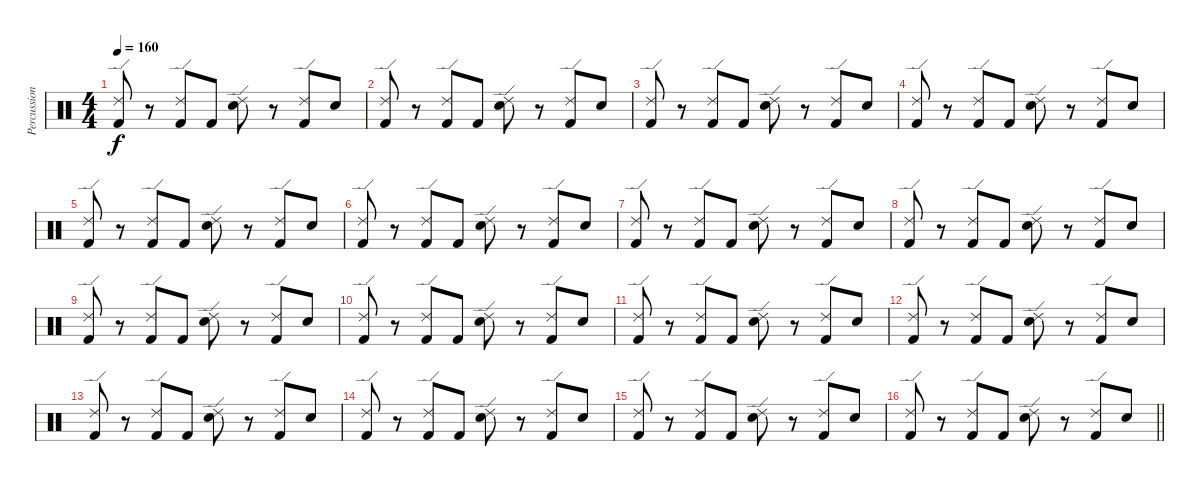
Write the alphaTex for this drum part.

\track ("Percussion" "Percussion") {instrument percussion}
\staff {score}
\articulation defaults
\ts (4 4)
\tempo 160
\clef neutral
\ks c
("Ride (edge) 2" "Kick (hit) 2").8{dy f} r.8 ("Ride (edge) 2" "Kick (hit) 2").8 "Kick (hit) 2".8 ("Ride (edge) 2" "Snare (hit) 2").8 r.8 ("Ride (edge) 2" "Kick (hit) 2").8 "Snare (hit) 2".8 |
("Ride (edge) 2" "Kick (hit) 2").8 r.8 ("Ride (edge) 2" "Kick (hit) 2").8 "Kick (hit) 2".8 ("Ride (edge) 2" "Snare (hit) 2").8 r.8 ("Ride (edge) 2" "Kick (hit) 2").8 "Snare (hit) 2".8 |
("Ride (edge) 2" "Kick (hit) 2").8 r.8 ("Ride (edge) 2" "Kick (hit) 2").8 "Kick (hit) 2".8 ("Ride (edge) 2" "Snare (hit) 2").8 r.8 ("Ride (edge) 2" "Kick (hit) 2").8 "Snare (hit) 2".8 |
("Ride (edge) 2" "Kick (hit) 2").8 r.8 ("Ride (edge) 2" "Kick (hit) 2").8 "Kick (hit) 2".8 ("Ride (edge) 2" "Snare (hit) 2").8 r.8 ("Ride (edge) 2" "Kick (hit) 2").8 "Snare (hit) 2".8 |
("Ride (edge) 2" "Kick (hit) 2").8 r.8 ("Ride (edge) 2" "Kick (hit) 2").8 "Kick (hit) 2".8 ("Ride (edge) 2" "Snare (hit) 2").8 r.8 ("Ride (edge) 2" "Kick (hit) 2").8 "Snare (hit) 2".8 |
("Ride (edge) 2" "Kick (hit) 2").8 r.8 ("Ride (edge) 2" "Kick (hit) 2").8 "Kick (hit) 2".8 ("Ride (edge) 2" "Snare (hit) 2").8 r.8 ("Ride (edge) 2" "Kick (hit) 2").8 "Snare (hit) 2".8 |
("Ride (edge) 2" "Kick (hit) 2").8 r.8 ("Ride (edge) 2" "Kick (hit) 2").8 "Kick (hit) 2".8 ("Ride (edge) 2" "Snare (hit) 2").8 r.8 ("Ride (edge) 2" "Kick (hit) 2").8 "Snare (hit) 2".8 |
("Ride (edge) 2" "Kick (hit) 2").8 r.8 ("Ride (edge) 2" "Kick (hit) 2").8 "Kick (hit) 2".8 ("Ride (edge) 2" "Snare (hit) 2").8 r.8 ("Ride (edge) 2" "Kick (hit) 2").8 "Snare (hit) 2".8 |
("Ride (edge) 2" "Kick (hit) 2").8 r.8 ("Ride (edge) 2" "Kick (hit) 2").8 "Kick (hit) 2".8 ("Ride (edge) 2" "Snare (hit) 2").8 r.8 ("Ride (edge) 2" "Kick (hit) 2").8 "Snare (hit) 2".8 |
("Ride (edge) 2" "Kick (hit) 2").8 r.8 ("Ride (edge) 2" "Kick (hit) 2").8 "Kick (hit) 2".8 ("Ride (edge) 2" "Snare (hit) 2").8 r.8 ("Ride (edge) 2" "Kick (hit) 2").8 "Snare (hit) 2".8 |
("Ride (edge) 2" "Kick (hit) 2").8 r.8 ("Ride (edge) 2" "Kick (hit) 2").8 "Kick (hit) 2".8 ("Ride (edge) 2" "Snare (hit) 2").8 r.8 ("Ride (edge) 2" "Kick (hit) 2").8 "Snare (hit) 2".8 |
("Ride (edge) 2" "Kick (hit) 2").8 r.8 ("Ride (edge) 2" "Kick (hit) 2").8 "Kick (hit) 2".8 ("Ride (edge) 2" "Snare (hit) 2").8 r.8 ("Ride (edge) 2" "Kick (hit) 2").8 "Snare (hit) 2".8 |
("Ride (edge) 2" "Kick (hit) 2").8 r.8 ("Ride (edge) 2" "Kick (hit) 2").8 "Kick (hit) 2".8 ("Ride (edge) 2" "Snare (hit) 2").8 r.8 ("Ride (edge) 2" "Kick (hit) 2").8 "Snare (hit) 2".8 |
("Ride (edge) 2" "Kick (hit) 2").8 r.8 ("Ride (edge) 2" "Kick (hit) 2").8 "Kick (hit) 2".8 ("Ride (edge) 2" "Snare (hit) 2").8 r.8 ("Ride (edge) 2" "Kick (hit) 2").8 "Snare (hit) 2".8 |
("Ride (edge) 2" "Kick (hit) 2").8 r.8 ("Ride (edge) 2" "Kick (hit) 2").8 "Kick (hit) 2".8 ("Ride (edge) 2" "Snare (hit) 2").8 r.8 ("Ride (edge) 2" "Kick (hit) 2").8 "Snare (hit) 2".8 |
\barLineRight lightlight
("Ride (edge) 2" "Kick (hit) 2").8 r.8 ("Ride (edge) 2" "Kick (hit) 2").8 "Kick (hit) 2".8 ("Ride (edge) 2" "Snare (hit) 2").8 r.8 ("Ride (edge) 2" "Kick (hit) 2").8 "Snare (hit) 2".8
